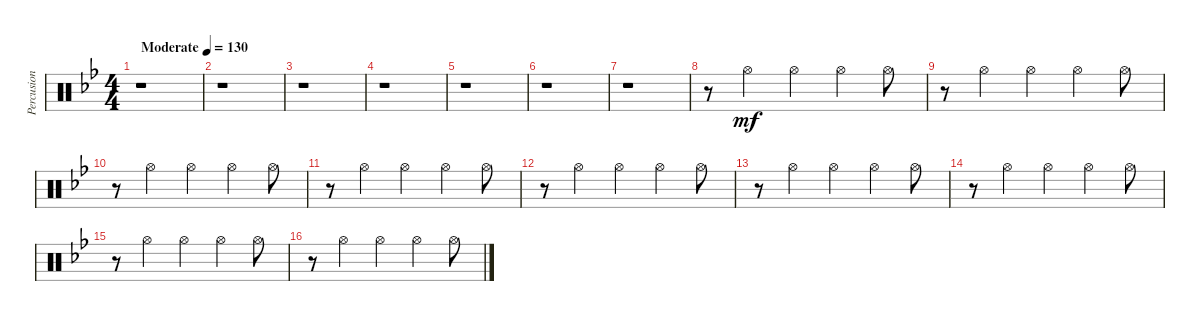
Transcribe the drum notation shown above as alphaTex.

\track ("Percusion IV" "Percusion ") {instrument percussion}
\staff {score}
\articulation defaults
\ts (4 4)
\tempo (130 "Moderate")
\clef neutral
\ks gminor
r.1{dy mf} |
r.1 |
r.1 |
r.1 |
r.1 |
r.1 |
r.1 |
r.8 "Hi-Hat (open)".4 "Hi-Hat (open)".4 "Hi-Hat (open)".4 "Hi-Hat (open)".8 |
r.8 "Hi-Hat (open)".4 "Hi-Hat (open)".4 "Hi-Hat (open)".4 "Hi-Hat (open)".8 |
r.8 "Hi-Hat (open)".4 "Hi-Hat (open)".4 "Hi-Hat (open)".4 "Hi-Hat (open)".8 |
r.8 "Hi-Hat (open)".4 "Hi-Hat (open)".4 "Hi-Hat (open)".4 "Hi-Hat (open)".8 |
r.8 "Hi-Hat (open)".4 "Hi-Hat (open)".4 "Hi-Hat (open)".4 "Hi-Hat (open)".8 |
r.8 "Hi-Hat (open)".4 "Hi-Hat (open)".4 "Hi-Hat (open)".4 "Hi-Hat (open)".8 |
r.8 "Hi-Hat (open)".4 "Hi-Hat (open)".4 "Hi-Hat (open)".4 "Hi-Hat (open)".8 |
r.8 "Hi-Hat (open)".4 "Hi-Hat (open)".4 "Hi-Hat (open)".4 "Hi-Hat (open)".8 |
r.8 "Hi-Hat (open)".4 "Hi-Hat (open)".4 "Hi-Hat (open)".4 "Hi-Hat (open)".8
